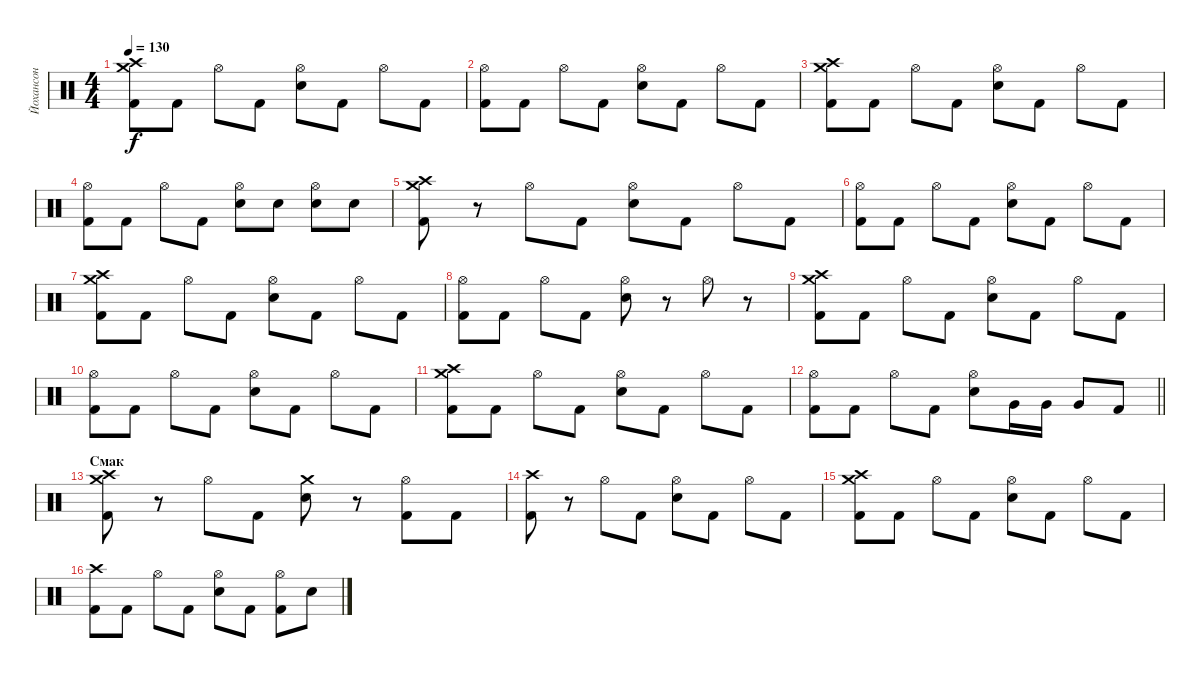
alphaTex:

\track ("Йохансон" "Йохансон") {instrument percussion}
\staff {score}
\articulation defaults
\ts (4 4)
\tempo 130
\clef neutral
\ks c
("Crash medium (hit)" "Crash high (hit)" "Kick (hit) 2").8{dy f} "Kick (hit) 2".8 "Hi-Hat (open)".8 "Kick (hit) 2".8 ("Hi-Hat (open)" "Snare (hit) 2").8 "Kick (hit) 2".8 "Hi-Hat (open)".8 "Kick (hit) 2".8 |
("Hi-Hat (open)" "Kick (hit) 2").8 "Kick (hit) 2".8 "Hi-Hat (open)".8 "Kick (hit) 2".8 ("Hi-Hat (open)" "Snare (hit) 2").8 "Kick (hit) 2".8 "Hi-Hat (open)".8 "Kick (hit) 2".8 |
("Crash medium (hit)" "Crash high (hit)" "Kick (hit) 2").8 "Kick (hit) 2".8 "Hi-Hat (open)".8 "Kick (hit) 2".8 ("Hi-Hat (open)" "Snare (hit) 2").8 "Kick (hit) 2".8 "Hi-Hat (open)".8 "Kick (hit) 2".8 |
("Hi-Hat (open)" "Kick (hit) 2").8 "Kick (hit) 2".8 "Hi-Hat (open)".8 "Kick (hit) 2".8 ("Hi-Hat (open)" "Snare (hit) 2").8 "Snare (hit) 2".8 ("Hi-Hat (open)" "Snare (hit) 2").8 "Snare (hit) 2".8 |
("Crash medium (hit)" "Crash high (hit)" "Kick (hit) 2").8 r.8 "Hi-Hat (open)".8 "Kick (hit) 2".8 ("Hi-Hat (open)" "Snare (hit) 2").8 "Kick (hit) 2".8 "Hi-Hat (open)".8 "Kick (hit) 2".8 |
("Hi-Hat (open)" "Kick (hit) 2").8 "Kick (hit) 2".8 "Hi-Hat (open)".8 "Kick (hit) 2".8 ("Hi-Hat (open)" "Snare (hit) 2").8 "Kick (hit) 2".8 "Hi-Hat (open)".8 "Kick (hit) 2".8 |
("Crash medium (hit)" "Crash high (hit)" "Kick (hit) 2").8 "Kick (hit) 2".8 "Hi-Hat (open)".8 "Kick (hit) 2".8 ("Hi-Hat (open)" "Snare (hit) 2").8 "Kick (hit) 2".8 "Hi-Hat (open)".8 "Kick (hit) 2".8 |
("Hi-Hat (open)" "Kick (hit) 2").8 "Kick (hit) 2".8 "Hi-Hat (open)".8 "Kick (hit) 2".8 ("Hi-Hat (open)" "Snare (hit) 2").8 r.8 "Hi-Hat (open)".8 r.8 |
("Crash medium (hit)" "Crash high (hit)" "Kick (hit) 2").8 "Kick (hit) 2".8 "Hi-Hat (open)".8 "Kick (hit) 2".8 ("Hi-Hat (open)" "Snare (hit) 2").8 "Kick (hit) 2".8 "Hi-Hat (open)".8 "Kick (hit) 2".8 |
("Hi-Hat (open)" "Kick (hit) 2").8 "Kick (hit) 2".8 "Hi-Hat (open)".8 "Kick (hit) 2".8 ("Hi-Hat (open)" "Snare (hit) 2").8 "Kick (hit) 2".8 "Hi-Hat (open)".8 "Kick (hit) 2".8 |
("Crash medium (hit)" "Crash high (hit)" "Kick (hit) 2").8 "Kick (hit) 2".8 "Hi-Hat (open)".8 "Kick (hit) 2".8 ("Hi-Hat (open)" "Snare (hit) 2").8 "Kick (hit) 2".8 "Hi-Hat (open)".8 "Kick (hit) 2".8 |
\barLineRight lightlight
("Hi-Hat (open)" "Kick (hit) 2").8 "Kick (hit) 2".8 "Hi-Hat (open)".8 "Kick (hit) 2".8 ("Hi-Hat (open)" "Snare (hit) 2").8 "Very Low Tom (hit)".16 "Very Low Tom (hit)".16 "Very Low Tom (hit)".8 "Kick (hit) 2".8 |
\section ("" "Смак")
("Crash medium (hit)" "Crash high (hit)" "Kick (hit) 2").8 r.8 "Hi-Hat (open)".8 "Kick (hit) 2".8 ("Crash medium (hit)" "Snare (hit) 2").8 r.8 ("Hi-Hat (open)" "Kick (hit) 2").8 "Kick (hit) 2".8 |
("Crash high (hit)" "Kick (hit) 2").8 r.8 "Hi-Hat (open)".8 "Kick (hit) 2".8 ("Hi-Hat (open)" "Snare (hit) 2").8 "Kick (hit) 2".8 "Hi-Hat (open)".8 "Kick (hit) 2".8 |
("Crash medium (hit)" "Crash high (hit)" "Kick (hit) 2").8 "Kick (hit) 2".8 "Hi-Hat (open)".8 "Kick (hit) 2".8 ("Hi-Hat (open)" "Snare (hit) 2").8 "Kick (hit) 2".8 "Hi-Hat (open)".8 "Kick (hit) 2".8 |
("Crash high (hit)" "Kick (hit) 2").8 "Kick (hit) 2".8 "Hi-Hat (open)".8 "Kick (hit) 2".8 ("Hi-Hat (open)" "Snare (hit) 2").8 "Kick (hit) 2".8 ("Hi-Hat (open)" "Kick (hit) 2").8 "Snare (hit) 2".8
